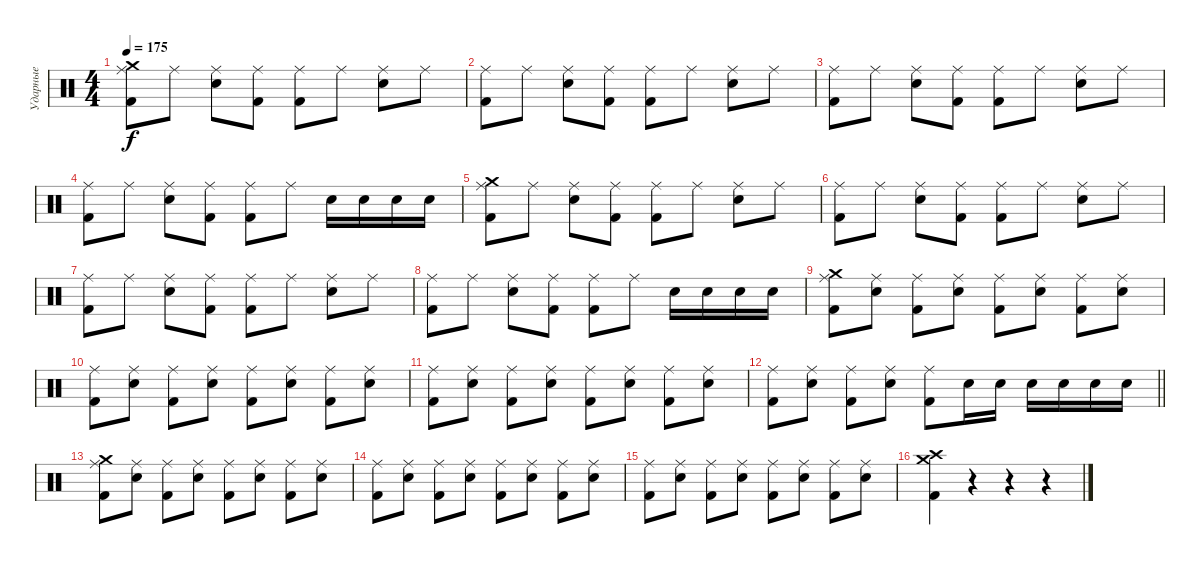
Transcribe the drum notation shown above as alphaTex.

\track ("Ударные" "Ударные") {instrument percussion}
\staff {score}
\articulation defaults
\ts (4 4)
\tempo 175
\clef neutral
\ks c
("Ride (middle)" "Crash medium (hit)" "Kick (hit) 2").8{dy f} "Ride (middle)".8 ("Ride (middle)" "Electric Snare (hit)").8 ("Ride (middle)" "Kick (hit) 2").8 ("Ride (middle)" "Kick (hit) 2").8 "Ride (middle)".8 ("Ride (middle)" "Electric Snare (hit)").8 "Ride (middle)".8 |
("Ride (middle)" "Kick (hit) 2").8 "Ride (middle)".8 ("Ride (middle)" "Electric Snare (hit)").8 ("Ride (middle)" "Kick (hit) 2").8 ("Ride (middle)" "Kick (hit) 2").8 "Ride (middle)".8 ("Ride (middle)" "Electric Snare (hit)").8 "Ride (middle)".8 |
("Ride (middle)" "Kick (hit) 2").8 "Ride (middle)".8 ("Ride (middle)" "Electric Snare (hit)").8 ("Ride (middle)" "Kick (hit) 2").8 ("Ride (middle)" "Kick (hit) 2").8 "Ride (middle)".8 ("Ride (middle)" "Electric Snare (hit)").8 "Ride (middle)".8 |
("Ride (middle)" "Kick (hit) 2").8 "Ride (middle)".8 ("Ride (middle)" "Electric Snare (hit)").8 ("Ride (middle)" "Kick (hit) 2").8 ("Ride (middle)" "Kick (hit) 2").8 "Ride (middle)".8 "Electric Snare (hit)".16 "Electric Snare (hit)".16 "Electric Snare (hit)".16 "Electric Snare (hit)".16 |
("Ride (middle)" "Crash medium (hit)" "Kick (hit) 2").8 "Ride (middle)".8 ("Ride (middle)" "Electric Snare (hit)").8 ("Ride (middle)" "Kick (hit) 2").8 ("Ride (middle)" "Kick (hit) 2").8 "Ride (middle)".8 ("Ride (middle)" "Electric Snare (hit)").8 "Ride (middle)".8 |
("Ride (middle)" "Kick (hit) 2").8 "Ride (middle)".8 ("Ride (middle)" "Electric Snare (hit)").8 ("Ride (middle)" "Kick (hit) 2").8 ("Ride (middle)" "Kick (hit) 2").8 "Ride (middle)".8 ("Ride (middle)" "Electric Snare (hit)").8 "Ride (middle)".8 |
("Ride (middle)" "Kick (hit) 2").8 "Ride (middle)".8 ("Ride (middle)" "Electric Snare (hit)").8 ("Ride (middle)" "Kick (hit) 2").8 ("Ride (middle)" "Kick (hit) 2").8 "Ride (middle)".8 ("Ride (middle)" "Electric Snare (hit)").8 "Ride (middle)".8 |
("Ride (middle)" "Kick (hit) 2").8 "Ride (middle)".8 ("Ride (middle)" "Electric Snare (hit)").8 ("Ride (middle)" "Kick (hit) 2").8 ("Ride (middle)" "Kick (hit) 2").8 "Ride (middle)".8 "Electric Snare (hit)".16 "Electric Snare (hit)".16 "Electric Snare (hit)".16 "Electric Snare (hit)".16 |
("Ride (middle)" "Crash medium (hit)" "Kick (hit) 2").8 ("Ride (middle)" "Electric Snare (hit)").8 ("Ride (middle)" "Kick (hit) 2").8 ("Ride (middle)" "Electric Snare (hit)").8 ("Ride (middle)" "Kick (hit) 2").8 ("Ride (middle)" "Electric Snare (hit)").8 ("Ride (middle)" "Kick (hit) 2").8 ("Ride (middle)" "Electric Snare (hit)").8 |
("Ride (middle)" "Kick (hit) 2").8 ("Ride (middle)" "Electric Snare (hit)").8 ("Ride (middle)" "Kick (hit) 2").8 ("Ride (middle)" "Electric Snare (hit)").8 ("Ride (middle)" "Kick (hit) 2").8 ("Ride (middle)" "Electric Snare (hit)").8 ("Ride (middle)" "Kick (hit) 2").8 ("Ride (middle)" "Electric Snare (hit)").8 |
("Ride (middle)" "Kick (hit) 2").8 ("Ride (middle)" "Electric Snare (hit)").8 ("Ride (middle)" "Kick (hit) 2").8 ("Ride (middle)" "Electric Snare (hit)").8 ("Ride (middle)" "Kick (hit) 2").8 ("Ride (middle)" "Electric Snare (hit)").8 ("Ride (middle)" "Kick (hit) 2").8 ("Ride (middle)" "Electric Snare (hit)").8 |
\barLineRight lightlight
("Ride (middle)" "Kick (hit) 2").8 ("Ride (middle)" "Electric Snare (hit)").8 ("Ride (middle)" "Kick (hit) 2").8 ("Ride (middle)" "Electric Snare (hit)").8 ("Ride (middle)" "Kick (hit) 2").8 "Electric Snare (hit)".16 "Electric Snare (hit)".16 "Electric Snare (hit)".16 "Electric Snare (hit)".16 "Electric Snare (hit)".16 "Electric Snare (hit)".16 |
("Ride (middle)" "Crash medium (hit)" "Kick (hit) 2").8 ("Ride (middle)" "Electric Snare (hit)").8 ("Ride (middle)" "Kick (hit) 2").8 ("Ride (middle)" "Electric Snare (hit)").8 ("Ride (middle)" "Kick (hit) 2").8 ("Ride (middle)" "Electric Snare (hit)").8 ("Ride (middle)" "Kick (hit) 2").8 ("Ride (middle)" "Electric Snare (hit)").8 |
("Ride (middle)" "Kick (hit) 2").8 ("Ride (middle)" "Electric Snare (hit)").8 ("Ride (middle)" "Kick (hit) 2").8 ("Ride (middle)" "Electric Snare (hit)").8 ("Ride (middle)" "Kick (hit) 2").8 ("Ride (middle)" "Electric Snare (hit)").8 ("Ride (middle)" "Kick (hit) 2").8 ("Ride (middle)" "Electric Snare (hit)").8 |
("Ride (middle)" "Kick (hit) 2").8 ("Ride (middle)" "Electric Snare (hit)").8 ("Ride (middle)" "Kick (hit) 2").8 ("Ride (middle)" "Electric Snare (hit)").8 ("Ride (middle)" "Kick (hit) 2").8 ("Ride (middle)" "Electric Snare (hit)").8 ("Ride (middle)" "Kick (hit) 2").8 ("Ride (middle)" "Electric Snare (hit)").8 |
("Crash medium (hit)" "Crash high (hit)" "Kick (hit) 2").4 r.4 r.4 r.4
